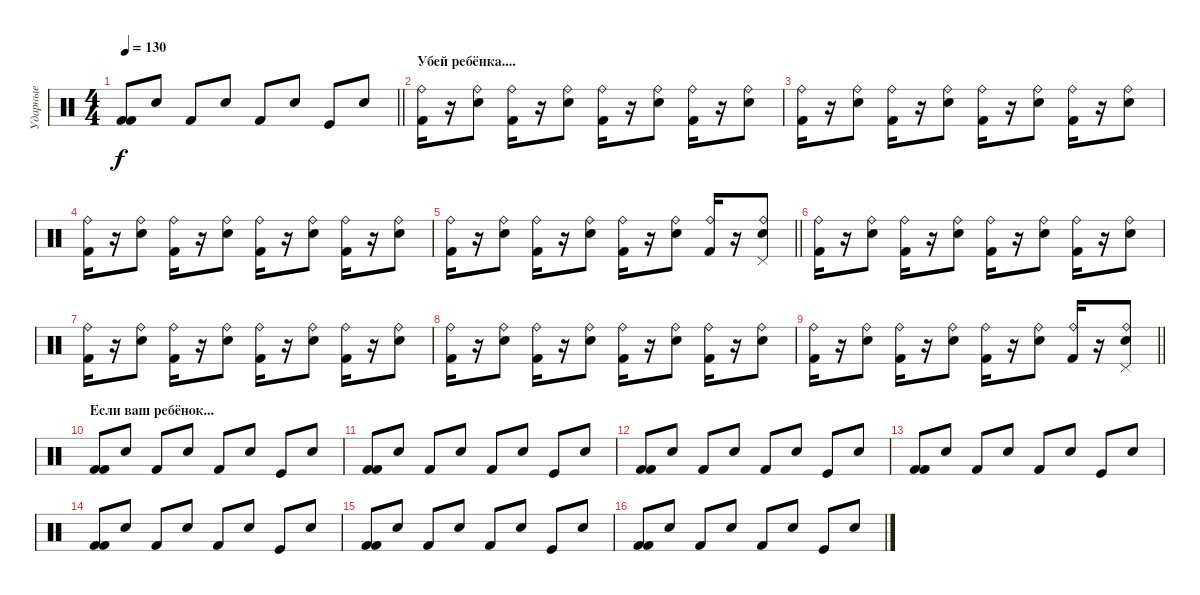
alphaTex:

\track ("Ударные" "Ударные") {instrument percussion}
\staff {score}
\articulation defaults
\ts (4 4)
\tempo 130
\clef neutral
\barLineRight lightlight
\ks c
("Kick (hit) 2" "Kick (hit) 2").8{dy f} "Snare (hit) 2".8 "Kick (hit) 2".8 "Snare (hit) 2".8 "Kick (hit) 2".8 "Snare (hit) 2".8 "Kick (hit)".8 "Snare (hit) 2".8 |
\section ("" "Убей ребёнка....")
("Ride (bell)" "Kick (hit) 2").16 r.16 ("Ride (bell)" "Snare (hit) 2").8 ("Ride (bell)" "Kick (hit) 2").16 r.16 ("Ride (bell)" "Snare (hit) 2").8 ("Ride (bell)" "Kick (hit) 2").16 r.16 ("Ride (bell)" "Snare (hit) 2").8 ("Ride (bell)" "Kick (hit) 2").16 r.16 ("Ride (bell)" "Snare (hit) 2").8 |
("Ride (bell)" "Kick (hit) 2").16 r.16 ("Ride (bell)" "Snare (hit) 2").8 ("Ride (bell)" "Kick (hit) 2").16 r.16 ("Ride (bell)" "Snare (hit) 2").8 ("Ride (bell)" "Kick (hit) 2").16 r.16 ("Ride (bell)" "Snare (hit) 2").8 ("Ride (bell)" "Kick (hit) 2").16 r.16 ("Ride (bell)" "Snare (hit) 2").8 |
("Ride (bell)" "Kick (hit) 2").16 r.16 ("Ride (bell)" "Snare (hit) 2").8 ("Ride (bell)" "Kick (hit) 2").16 r.16 ("Ride (bell)" "Snare (hit) 2").8 ("Ride (bell)" "Kick (hit) 2").16 r.16 ("Ride (bell)" "Snare (hit) 2").8 ("Ride (bell)" "Kick (hit) 2").16 r.16 ("Ride (bell)" "Snare (hit) 2").8 |
\barLineRight lightlight
("Ride (bell)" "Kick (hit) 2").16 r.16 ("Ride (bell)" "Snare (hit) 2").8 ("Ride (bell)" "Kick (hit) 2").16 r.16 ("Ride (bell)" "Snare (hit) 2").8 ("Ride (bell)" "Kick (hit) 2").16 r.16 ("Ride (bell)" "Snare (hit) 2").8 ("Ride (bell)" "Kick (hit) 2").16 r.16 ("Ride (bell)" "Snare (hit) 2" "Pedal Hi-Hat (hit)").8 |
("Ride (bell)" "Kick (hit) 2").16 r.16 ("Ride (bell)" "Snare (hit) 2").8 ("Ride (bell)" "Kick (hit) 2").16 r.16 ("Ride (bell)" "Snare (hit) 2").8 ("Ride (bell)" "Kick (hit) 2").16 r.16 ("Ride (bell)" "Snare (hit) 2").8 ("Ride (bell)" "Kick (hit) 2").16 r.16 ("Ride (bell)" "Snare (hit) 2").8 |
("Ride (bell)" "Kick (hit) 2").16 r.16 ("Ride (bell)" "Snare (hit) 2").8 ("Ride (bell)" "Kick (hit) 2").16 r.16 ("Ride (bell)" "Snare (hit) 2").8 ("Ride (bell)" "Kick (hit) 2").16 r.16 ("Ride (bell)" "Snare (hit) 2").8 ("Ride (bell)" "Kick (hit) 2").16 r.16 ("Ride (bell)" "Snare (hit) 2").8 |
("Ride (bell)" "Kick (hit) 2").16 r.16 ("Ride (bell)" "Snare (hit) 2").8 ("Ride (bell)" "Kick (hit) 2").16 r.16 ("Ride (bell)" "Snare (hit) 2").8 ("Ride (bell)" "Kick (hit) 2").16 r.16 ("Ride (bell)" "Snare (hit) 2").8 ("Ride (bell)" "Kick (hit) 2").16 r.16 ("Ride (bell)" "Snare (hit) 2").8 |
\barLineRight lightlight
("Ride (bell)" "Kick (hit) 2").16 r.16 ("Ride (bell)" "Snare (hit) 2").8 ("Ride (bell)" "Kick (hit) 2").16 r.16 ("Ride (bell)" "Snare (hit) 2").8 ("Ride (bell)" "Kick (hit) 2").16 r.16 ("Ride (bell)" "Snare (hit) 2").8 ("Ride (bell)" "Kick (hit) 2").16 r.16 ("Ride (bell)" "Snare (hit) 2" "Pedal Hi-Hat (hit)").8 |
\section ("" "Если ваш ребёнок...")
("Kick (hit) 2" "Kick (hit) 2").8 "Snare (hit) 2".8 "Kick (hit) 2".8 "Snare (hit) 2".8 "Kick (hit) 2".8 "Snare (hit) 2".8 "Kick (hit)".8 "Snare (hit) 2".8 |
("Kick (hit) 2" "Kick (hit) 2").8 "Snare (hit) 2".8 "Kick (hit) 2".8 "Snare (hit) 2".8 "Kick (hit) 2".8 "Snare (hit) 2".8 "Kick (hit)".8 "Snare (hit) 2".8 |
("Kick (hit) 2" "Kick (hit) 2").8 "Snare (hit) 2".8 "Kick (hit) 2".8 "Snare (hit) 2".8 "Kick (hit) 2".8 "Snare (hit) 2".8 "Kick (hit)".8 "Snare (hit) 2".8 |
("Kick (hit) 2" "Kick (hit) 2").8 "Snare (hit) 2".8 "Kick (hit) 2".8 "Snare (hit) 2".8 "Kick (hit) 2".8 "Snare (hit) 2".8 "Kick (hit)".8 "Snare (hit) 2".8 |
("Kick (hit) 2" "Kick (hit) 2").8 "Snare (hit) 2".8 "Kick (hit) 2".8 "Snare (hit) 2".8 "Kick (hit) 2".8 "Snare (hit) 2".8 "Kick (hit)".8 "Snare (hit) 2".8 |
("Kick (hit) 2" "Kick (hit) 2").8 "Snare (hit) 2".8 "Kick (hit) 2".8 "Snare (hit) 2".8 "Kick (hit) 2".8 "Snare (hit) 2".8 "Kick (hit)".8 "Snare (hit) 2".8 |
("Kick (hit) 2" "Kick (hit) 2").8 "Snare (hit) 2".8 "Kick (hit) 2".8 "Snare (hit) 2".8 "Kick (hit) 2".8 "Snare (hit) 2".8 "Kick (hit)".8 "Snare (hit) 2".8
